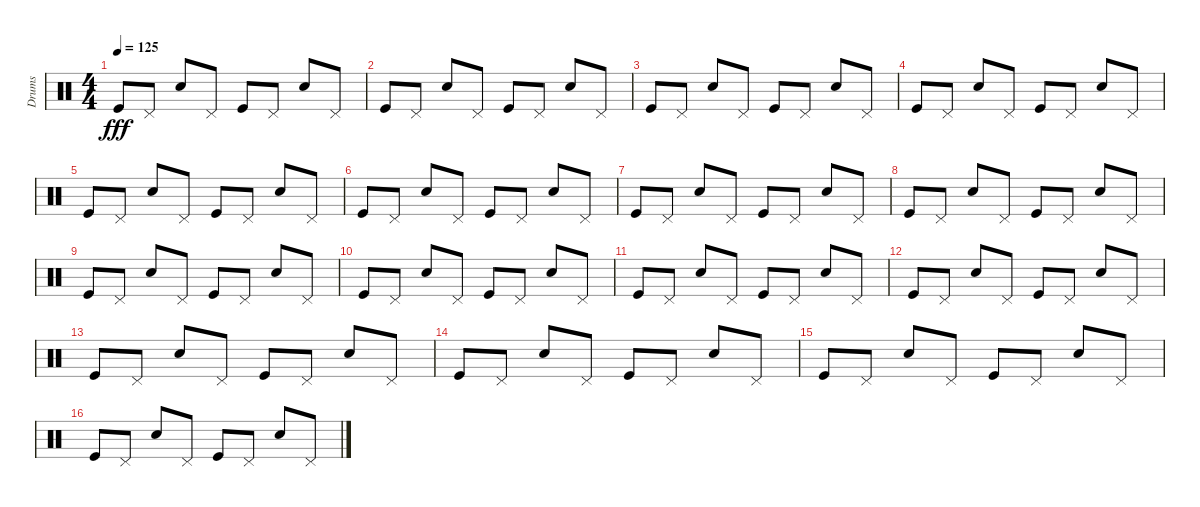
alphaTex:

\track ("Drums" "Drums") {instrument percussion}
\staff {score}
\articulation defaults
\ts (4 4)
\tempo 125
\clef neutral
\ks c "Kick (hit)".8{dy fff} "Pedal Hi-Hat (hit)".8 "Electric Snare (hit)".8 "Pedal Hi-Hat (hit)".8 "Kick (hit)".8 "Pedal Hi-Hat (hit)".8 "Electric Snare (hit)".8 "Pedal Hi-Hat (hit)".8
|
"Kick (hit)".8 "Pedal Hi-Hat (hit)".8 "Electric Snare (hit)".8 "Pedal Hi-Hat (hit)".8 "Kick (hit)".8 "Pedal Hi-Hat (hit)".8 "Electric Snare (hit)".8 "Pedal Hi-Hat (hit)".8 |
"Kick (hit)".8 "Pedal Hi-Hat (hit)".8 "Electric Snare (hit)".8 "Pedal Hi-Hat (hit)".8 "Kick (hit)".8 "Pedal Hi-Hat (hit)".8 "Electric Snare (hit)".8 "Pedal Hi-Hat (hit)".8 |
"Kick (hit)".8 "Pedal Hi-Hat (hit)".8 "Electric Snare (hit)".8 "Pedal Hi-Hat (hit)".8 "Kick (hit)".8 "Pedal Hi-Hat (hit)".8 "Electric Snare (hit)".8 "Pedal Hi-Hat (hit)".8 |
"Kick (hit)".8 "Pedal Hi-Hat (hit)".8 "Electric Snare (hit)".8 "Pedal Hi-Hat (hit)".8 "Kick (hit)".8 "Pedal Hi-Hat (hit)".8 "Electric Snare (hit)".8 "Pedal Hi-Hat (hit)".8 |
"Kick (hit)".8 "Pedal Hi-Hat (hit)".8 "Electric Snare (hit)".8 "Pedal Hi-Hat (hit)".8 "Kick (hit)".8 "Pedal Hi-Hat (hit)".8 "Electric Snare (hit)".8 "Pedal Hi-Hat (hit)".8 |
"Kick (hit)".8 "Pedal Hi-Hat (hit)".8 "Electric Snare (hit)".8 "Pedal Hi-Hat (hit)".8 "Kick (hit)".8 "Pedal Hi-Hat (hit)".8 "Electric Snare (hit)".8 "Pedal Hi-Hat (hit)".8 |
"Kick (hit)".8 "Pedal Hi-Hat (hit)".8 "Electric Snare (hit)".8 "Pedal Hi-Hat (hit)".8 "Kick (hit)".8 "Pedal Hi-Hat (hit)".8 "Electric Snare (hit)".8 "Pedal Hi-Hat (hit)".8 |
"Kick (hit)".8 "Pedal Hi-Hat (hit)".8 "Electric Snare (hit)".8 "Pedal Hi-Hat (hit)".8 "Kick (hit)".8 "Pedal Hi-Hat (hit)".8 "Electric Snare (hit)".8 "Pedal Hi-Hat (hit)".8 |
"Kick (hit)".8 "Pedal Hi-Hat (hit)".8 "Electric Snare (hit)".8 "Pedal Hi-Hat (hit)".8 "Kick (hit)".8 "Pedal Hi-Hat (hit)".8 "Electric Snare (hit)".8 "Pedal Hi-Hat (hit)".8 |
"Kick (hit)".8 "Pedal Hi-Hat (hit)".8 "Electric Snare (hit)".8 "Pedal Hi-Hat (hit)".8 "Kick (hit)".8 "Pedal Hi-Hat (hit)".8 "Electric Snare (hit)".8 "Pedal Hi-Hat (hit)".8 |
"Kick (hit)".8 "Pedal Hi-Hat (hit)".8 "Electric Snare (hit)".8 "Pedal Hi-Hat (hit)".8 "Kick (hit)".8 "Pedal Hi-Hat (hit)".8 "Electric Snare (hit)".8 "Pedal Hi-Hat (hit)".8 |
"Kick (hit)".8 "Pedal Hi-Hat (hit)".8 "Electric Snare (hit)".8 "Pedal Hi-Hat (hit)".8 "Kick (hit)".8 "Pedal Hi-Hat (hit)".8 "Electric Snare (hit)".8 "Pedal Hi-Hat (hit)".8 |
"Kick (hit)".8 "Pedal Hi-Hat (hit)".8 "Electric Snare (hit)".8 "Pedal Hi-Hat (hit)".8 "Kick (hit)".8 "Pedal Hi-Hat (hit)".8 "Electric Snare (hit)".8 "Pedal Hi-Hat (hit)".8 |
"Kick (hit)".8 "Pedal Hi-Hat (hit)".8 "Electric Snare (hit)".8 "Pedal Hi-Hat (hit)".8 "Kick (hit)".8 "Pedal Hi-Hat (hit)".8 "Electric Snare (hit)".8 "Pedal Hi-Hat (hit)".8 |
"Kick (hit)".8 "Pedal Hi-Hat (hit)".8 "Electric Snare (hit)".8 "Pedal Hi-Hat (hit)".8 "Kick (hit)".8 "Pedal Hi-Hat (hit)".8 "Electric Snare (hit)".8 "Pedal Hi-Hat (hit)".8
